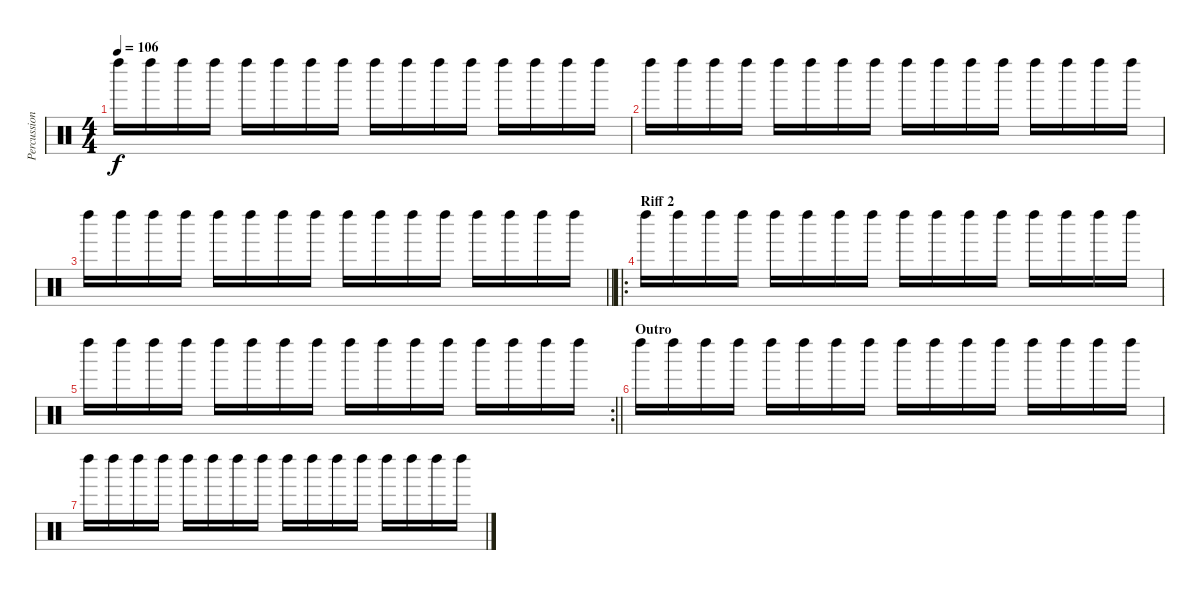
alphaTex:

\track ("Percussion 1" "Percussion") {instrument percussion}
\staff
\articulation defaults
\ts (4 4)
\tempo 106
\clef neutral
\ks c "Left Maraca (hit)".16{dy f} "Left Maraca (hit)".16 "Left Maraca (hit)".16 "Left Maraca (hit)".16 "Left Maraca (hit)".16 "Left Maraca (hit)".16 "Left Maraca (hit)".16 "Left Maraca (hit)".16 "Left Maraca (hit)".16 "Left Maraca (hit)".16 "Left Maraca (hit)".16 "Left Maraca (hit)".16 "Left Maraca (hit)".16 "Left Maraca (hit)".16 "Left Maraca (hit)".16 "Left Maraca (hit)".16
|
"Left Maraca (hit)".16 "Left Maraca (hit)".16 "Left Maraca (hit)".16 "Left Maraca (hit)".16 "Left Maraca (hit)".16 "Left Maraca (hit)".16 "Left Maraca (hit)".16 "Left Maraca (hit)".16 "Left Maraca (hit)".16 "Left Maraca (hit)".16 "Left Maraca (hit)".16 "Left Maraca (hit)".16 "Left Maraca (hit)".16 "Left Maraca (hit)".16 "Left Maraca (hit)".16 "Left Maraca (hit)".16 |
\barLineRight lightlight "Left Maraca (hit)".16 "Left Maraca (hit)".16 "Left Maraca (hit)".16 "Left Maraca (hit)".16 "Left Maraca (hit)".16 "Left Maraca (hit)".16 "Left Maraca (hit)".16 "Left Maraca (hit)".16 "Left Maraca (hit)".16 "Left Maraca (hit)".16 "Left Maraca (hit)".16 "Left Maraca (hit)".16 "Left Maraca (hit)".16 "Left Maraca (hit)".16 "Left Maraca (hit)".16 "Left Maraca (hit)".16
|
\ro
\section ("" "Riff 2")
"Left Maraca (hit)".16 "Left Maraca (hit)".16 "Left Maraca (hit)".16 "Left Maraca (hit)".16 "Left Maraca (hit)".16 "Left Maraca (hit)".16 "Left Maraca (hit)".16 "Left Maraca (hit)".16 "Left Maraca (hit)".16 "Left Maraca (hit)".16 "Left Maraca (hit)".16 "Left Maraca (hit)".16 "Left Maraca (hit)".16 "Left Maraca (hit)".16 "Left Maraca (hit)".16 "Left Maraca (hit)".16 |
\rc 2
\barLineRight lightlight "Left Maraca (hit)".16 "Left Maraca (hit)".16 "Left Maraca (hit)".16 "Left Maraca (hit)".16 "Left Maraca (hit)".16 "Left Maraca (hit)".16 "Left Maraca (hit)".16 "Left Maraca (hit)".16 "Left Maraca (hit)".16 "Left Maraca (hit)".16 "Left Maraca (hit)".16 "Left Maraca (hit)".16 "Left Maraca (hit)".16 "Left Maraca (hit)".16 "Left Maraca (hit)".16 "Left Maraca (hit)".16
|
\section ("" "Outro")
"Left Maraca (hit)".16 "Left Maraca (hit)".16 "Left Maraca (hit)".16 "Left Maraca (hit)".16 "Left Maraca (hit)".16 "Left Maraca (hit)".16 "Left Maraca (hit)".16 "Left Maraca (hit)".16 "Left Maraca (hit)".16 "Left Maraca (hit)".16 "Left Maraca (hit)".16 "Left Maraca (hit)".16 "Left Maraca (hit)".16 "Left Maraca (hit)".16 "Left Maraca (hit)".16 "Left Maraca (hit)".16 |
"Left Maraca (hit)".16 "Left Maraca (hit)".16 "Left Maraca (hit)".16 "Left Maraca (hit)".16 "Left Maraca (hit)".16 "Left Maraca (hit)".16 "Left Maraca (hit)".16 "Left Maraca (hit)".16 "Left Maraca (hit)".16 "Left Maraca (hit)".16 "Left Maraca (hit)".16 "Left Maraca (hit)".16 "Left Maraca (hit)".16 "Left Maraca (hit)".16 "Left Maraca (hit)".16 "Left Maraca (hit)".16
